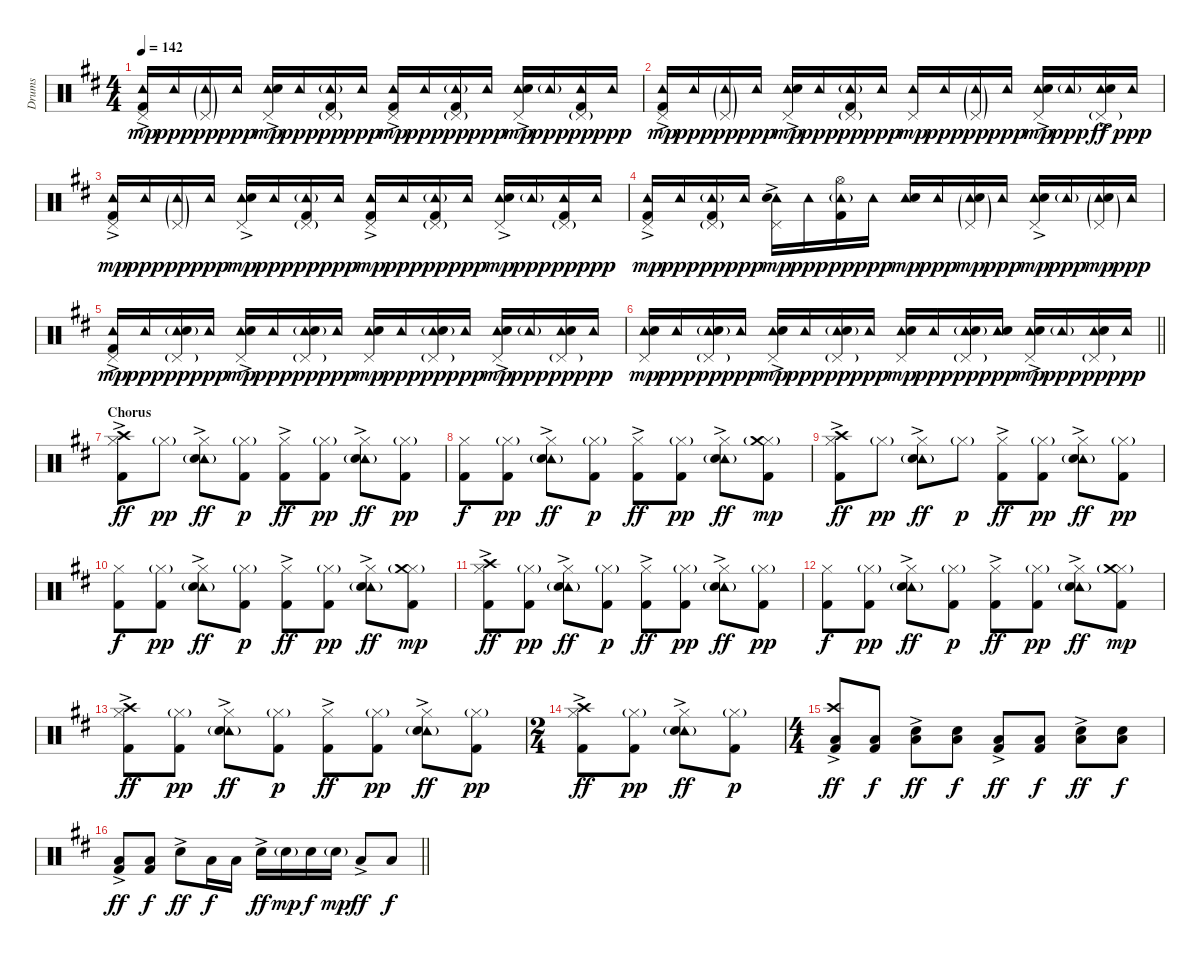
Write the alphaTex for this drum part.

\track ("Drums" "Drums") {instrument percussion}
\staff {score}
\articulation defaults
\ts (4 4)
\tempo 142
\clef neutral
\ks d
("Pedal Hi-Hat (hit)" "Tambourine (hit)" "Kick (hit) 2"{ac}).16{dy mp} "Tambourine (hit)".16{dy ppp} ("Pedal Hi-Hat (hit)"{g} "Tambourine (hit)"{g}).16{dy pp} "Tambourine (hit)".16{dy ppp} ("Pedal Hi-Hat (hit)" "Tambourine (hit)" "Snare (hit) 2"{ac}).16{dy mp} "Tambourine (hit)".16{dy ppp} ("Pedal Hi-Hat (hit)"{g} "Tambourine (hit)"{g} "Kick (hit) 2").16{dy pp} "Tambourine (hit)".16{dy ppp} ("Pedal Hi-Hat (hit)" "Tambourine (hit)" "Kick (hit) 2"{ac}).16{dy mp} "Tambourine (hit)".16{dy ppp} ("Pedal Hi-Hat (hit)"{g} "Tambourine (hit)"{g} "Kick (hit) 2").16{dy pp} "Tambourine (hit)".16{dy ppp} ("Pedal Hi-Hat (hit)" "Tambourine (hit)" "Snare (hit) 2"{ac}).16{dy mp} "Tambourine (hit)"{g}.16{dy ppp} ("Pedal Hi-Hat (hit)"{g} "Tambourine (hit)" "Kick (hit) 2").16{dy pp} "Tambourine (hit)".16{dy ppp} |
("Pedal Hi-Hat (hit)" "Tambourine (hit)" "Kick (hit) 2"{ac}).16{dy mp} "Tambourine (hit)".16{dy ppp} ("Pedal Hi-Hat (hit)"{g} "Tambourine (hit)"{g}).16{dy pp} "Tambourine (hit)".16{dy ppp} ("Pedal Hi-Hat (hit)" "Tambourine (hit)" "Snare (hit) 2"{ac}).16{dy mp} "Tambourine (hit)".16{dy ppp} ("Pedal Hi-Hat (hit)"{g} "Tambourine (hit)"{g} "Kick (hit) 2").16{dy pp} "Tambourine (hit)".16{dy ppp} ("Pedal Hi-Hat (hit)" "Tambourine (hit)").16{dy mp} "Tambourine (hit)".16{dy ppp} ("Pedal Hi-Hat (hit)"{g} "Tambourine (hit)"{g}).16{dy pp} "Tambourine (hit)".16{dy ppp} ("Pedal Hi-Hat (hit)" "Tambourine (hit)" "Snare (hit) 2"{ac}).16{dy mp} "Tambourine (hit)"{g}.16{dy ppp} ("Pedal Hi-Hat (hit)"{g} "Tambourine (hit)" "Snare (hit) 2"{ac}).16{dy ff} "Tambourine (hit)".16{dy ppp} |
("Pedal Hi-Hat (hit)" "Tambourine (hit)" "Kick (hit) 2"{ac}).16{dy mp} "Tambourine (hit)".16{dy ppp} ("Pedal Hi-Hat (hit)"{g} "Tambourine (hit)"{g}).16{dy pp} "Tambourine (hit)".16{dy ppp} ("Pedal Hi-Hat (hit)" "Tambourine (hit)" "Snare (hit) 2"{ac}).16{dy mp} "Tambourine (hit)".16{dy ppp} ("Pedal Hi-Hat (hit)"{g} "Tambourine (hit)"{g} "Kick (hit) 2").16{dy pp} "Tambourine (hit)".16{dy ppp} ("Pedal Hi-Hat (hit)" "Tambourine (hit)" "Kick (hit) 2"{ac}).16{dy mp} "Tambourine (hit)".16{dy ppp} ("Pedal Hi-Hat (hit)"{g} "Tambourine (hit)"{g} "Kick (hit) 2").16{dy pp} "Tambourine (hit)".16{dy ppp} ("Pedal Hi-Hat (hit)" "Tambourine (hit)" "Snare (hit) 2"{ac}).16{dy mp} "Tambourine (hit)"{g}.16{dy ppp} ("Pedal Hi-Hat (hit)"{g} "Tambourine (hit)" "Kick (hit) 2").16{dy pp} "Tambourine (hit)".16{dy ppp} |
("Pedal Hi-Hat (hit)" "Tambourine (hit)" "Kick (hit) 2"{ac}).16{dy mp} "Tambourine (hit)".16{dy ppp} ("Pedal Hi-Hat (hit)"{g} "Tambourine (hit)"{g} "Kick (hit) 2").16{dy pp} "Tambourine (hit)".16{dy ppp} ("Pedal Hi-Hat (hit)" "Tambourine (hit)" "Snare (hit) 2"{ac}).16{dy mp} "Tambourine (hit)".16{dy ppp} ("Hi-Hat (open)" "Tambourine (hit)"{g} "Kick (hit) 2").16{dy pp} "Tambourine (hit)".16{dy ppp} ("Tambourine (hit)" "Snare (hit) 2").16{dy mp} "Tambourine (hit)".16{dy ppp} ("Pedal Hi-Hat (hit)"{g} "Tambourine (hit)"{g} "Snare (hit) 2"{g}).16{dy mp} "Tambourine (hit)".16{dy ppp} ("Pedal Hi-Hat (hit)" "Tambourine (hit)" "Snare (hit) 2"{ac}).16{dy mp} "Tambourine (hit)"{g}.16{dy ppp} ("Pedal Hi-Hat (hit)"{g} "Tambourine (hit)" "Snare (hit) 2"{g}).16{dy mp} "Tambourine (hit)".16{dy ppp} |
("Pedal Hi-Hat (hit)" "Tambourine (hit)" "Kick (hit) 2"{ac}).16{dy mp} "Tambourine (hit)".16{dy ppp} ("Pedal Hi-Hat (hit)"{g} "Tambourine (hit)"{g} "Snare (hit) 2").16{dy pp} "Tambourine (hit)".16{dy ppp} ("Pedal Hi-Hat (hit)" "Tambourine (hit)" "Snare (hit) 2"{ac}).16{dy mp} "Tambourine (hit)".16{dy ppp} ("Pedal Hi-Hat (hit)"{g} "Tambourine (hit)"{g} "Snare (hit) 2").16{dy pp} "Tambourine (hit)".16{dy ppp} ("Pedal Hi-Hat (hit)" "Tambourine (hit)" "Snare (hit) 2").16{dy mp} "Tambourine (hit)".16{dy ppp} ("Pedal Hi-Hat (hit)"{g} "Tambourine (hit)"{g} "Snare (hit) 2").16{dy pp} "Tambourine (hit)".16{dy ppp} ("Pedal Hi-Hat (hit)" "Tambourine (hit)" "Snare (hit) 2"{ac}).16{dy mp} "Tambourine (hit)"{g}.16{dy ppp} ("Pedal Hi-Hat (hit)"{g} "Tambourine (hit)" "Snare (hit) 2").16{dy pp} "Tambourine (hit)".16{dy ppp} |
\barLineRight lightlight
("Pedal Hi-Hat (hit)" "Tambourine (hit)" "Snare (hit) 2").16{dy mp} "Tambourine (hit)".16{dy ppp} ("Pedal Hi-Hat (hit)"{g} "Tambourine (hit)"{g} "Snare (hit) 2").16{dy pp} "Tambourine (hit)".16{dy ppp} ("Pedal Hi-Hat (hit)" "Tambourine (hit)" "Snare (hit) 2"{ac}).16{dy mp} "Tambourine (hit)".16{dy ppp} ("Pedal Hi-Hat (hit)"{g} "Tambourine (hit)"{g} "Snare (hit) 2").16{dy pp} "Tambourine (hit)".16{dy ppp} ("Pedal Hi-Hat (hit)" "Tambourine (hit)" "Snare (hit) 2").16{dy mp} "Tambourine (hit)".16{dy ppp} ("Pedal Hi-Hat (hit)"{g} "Tambourine (hit)"{g} "Snare (hit) 2").16{dy pp} ("Tambourine (hit)" "Snare (hit) 2").16{dy ppp} ("Pedal Hi-Hat (hit)" "Tambourine (hit)" "Snare (hit) 2"{ac}).16{dy mp} "Tambourine (hit)"{g}.16{dy ppp} ("Pedal Hi-Hat (hit)"{g} "Tambourine (hit)" "Snare (hit) 2").16{dy pp} "Tambourine (hit)".16{dy ppp} |
\section ("" "Chorus")
("Hi-Hat (closed)" "Crash high (hit)" "Kick (hit) 2"{ac}).8{dy ff} "Hi-Hat (closed)"{g}.8{dy pp} ("Hi-Hat (closed)" "Tambourine (hit)"{g} "Snare (hit) 2"{ac}).8{dy ff} ("Hi-Hat (closed)"{g} "Kick (hit) 2").8{dy p} ("Hi-Hat (closed)" "Kick (hit) 2"{ac}).8{dy ff} ("Hi-Hat (closed)"{g} "Kick (hit) 2").8{dy pp} ("Hi-Hat (closed)" "Tambourine (hit)"{g} "Snare (hit) 2"{ac}).8{dy ff} ("Hi-Hat (closed)"{g} "Kick (hit) 2").8{dy pp} |
("Hi-Hat (closed)" "Kick (hit) 2").8{dy f} ("Hi-Hat (closed)"{g} "Kick (hit) 2").8{dy pp} ("Hi-Hat (closed)" "Tambourine (hit)"{g} "Snare (hit) 2"{ac}).8{dy ff} ("Hi-Hat (closed)"{g} "Kick (hit) 2").8{dy p} ("Hi-Hat (closed)" "Kick (hit) 2"{ac}).8{dy ff} ("Hi-Hat (closed)"{g} "Kick (hit) 2").8{dy pp} ("Hi-Hat (closed)" "Tambourine (hit)"{g} "Snare (hit) 2"{ac}).8{dy ff} ("Hi-Hat (closed)"{g} "Crash medium (hit)"{g} "Kick (hit) 2").8{dy mp} |
("Hi-Hat (closed)" "Crash high (hit)" "Kick (hit) 2"{ac}).8{dy ff} "Hi-Hat (closed)"{g}.8{dy pp} ("Hi-Hat (closed)" "Tambourine (hit)"{g} "Snare (hit) 2"{ac}).8{dy ff} "Hi-Hat (closed)"{g}.8{dy p} ("Hi-Hat (closed)" "Kick (hit) 2"{ac}).8{dy ff} ("Hi-Hat (closed)"{g} "Kick (hit) 2").8{dy pp} ("Hi-Hat (closed)" "Tambourine (hit)"{g} "Snare (hit) 2"{ac}).8{dy ff} ("Hi-Hat (closed)"{g} "Kick (hit) 2").8{dy pp} |
("Hi-Hat (closed)" "Kick (hit) 2").8{dy f} ("Hi-Hat (closed)"{g} "Kick (hit) 2").8{dy pp} ("Hi-Hat (closed)" "Tambourine (hit)"{g} "Snare (hit) 2"{ac}).8{dy ff} ("Hi-Hat (closed)"{g} "Kick (hit) 2").8{dy p} ("Hi-Hat (closed)" "Kick (hit) 2"{ac}).8{dy ff} ("Hi-Hat (closed)"{g} "Kick (hit) 2").8{dy pp} ("Hi-Hat (closed)" "Tambourine (hit)"{g} "Snare (hit) 2"{ac}).8{dy ff} ("Hi-Hat (closed)"{g} "Crash medium (hit)"{g} "Kick (hit) 2").8{dy mp} |
("Hi-Hat (closed)" "Crash high (hit)" "Kick (hit) 2"{ac}).8{dy ff} ("Hi-Hat (closed)"{g} "Kick (hit) 2").8{dy pp} ("Hi-Hat (closed)" "Tambourine (hit)"{g} "Snare (hit) 2"{ac}).8{dy ff} ("Hi-Hat (closed)"{g} "Kick (hit) 2").8{dy p} ("Hi-Hat (closed)" "Kick (hit) 2"{ac}).8{dy ff} ("Hi-Hat (closed)"{g} "Kick (hit) 2").8{dy pp} ("Hi-Hat (closed)" "Tambourine (hit)"{g} "Snare (hit) 2"{ac}).8{dy ff} ("Hi-Hat (closed)"{g} "Kick (hit) 2").8{dy pp} |
("Hi-Hat (closed)" "Kick (hit) 2").8{dy f} ("Hi-Hat (closed)"{g} "Kick (hit) 2").8{dy pp} ("Hi-Hat (closed)" "Tambourine (hit)"{g} "Snare (hit) 2"{ac}).8{dy ff} ("Hi-Hat (closed)"{g} "Kick (hit) 2").8{dy p} ("Hi-Hat (closed)" "Kick (hit) 2"{ac}).8{dy ff} ("Hi-Hat (closed)"{g} "Kick (hit) 2").8{dy pp} ("Hi-Hat (closed)" "Tambourine (hit)"{g} "Snare (hit) 2"{ac}).8{dy ff} ("Hi-Hat (closed)"{g} "Crash medium (hit)"{g} "Kick (hit) 2").8{dy mp} |
("Hi-Hat (closed)" "Crash high (hit)" "Kick (hit) 2"{ac}).8{dy ff} ("Hi-Hat (closed)"{g} "Kick (hit) 2").8{dy pp} ("Hi-Hat (closed)" "Tambourine (hit)"{g} "Snare (hit) 2"{ac}).8{dy ff} ("Hi-Hat (closed)"{g} "Kick (hit) 2").8{dy p} ("Hi-Hat (closed)" "Kick (hit) 2"{ac}).8{dy ff} ("Hi-Hat (closed)"{g} "Kick (hit) 2").8{dy pp} ("Hi-Hat (closed)" "Tambourine (hit)"{g} "Snare (hit) 2"{ac}).8{dy ff} ("Hi-Hat (closed)"{g} "Kick (hit) 2").8{dy pp} |
\ts (2 4)
("Hi-Hat (closed)" "Crash high (hit)" "Kick (hit) 2"{ac}).8{dy ff} ("Hi-Hat (closed)"{g} "Kick (hit) 2").8{dy pp} ("Hi-Hat (closed)" "Tambourine (hit)"{g} "Snare (hit) 2"{ac}).8{dy ff} ("Hi-Hat (closed)"{g} "Kick (hit) 2").8{dy p} |
\ts (4 4)
("Crash high (hit)" "Low Floor Tom (hit)" "Kick (hit) 2"{ac}).8{dy ff} ("Low Floor Tom (hit)" "Kick (hit) 2").8{dy f} ("Snare (hit) 2"{ac} "Low Tom (hit)").8{dy ff} ("Snare (hit) 2" "Low Tom (hit)").8{dy f} ("Low Floor Tom (hit)" "Kick (hit) 2"{ac}).8{dy ff} ("Low Floor Tom (hit)" "Kick (hit) 2").8{dy f} ("Snare (hit) 2"{ac} "Low Tom (hit)").8{dy ff} ("Snare (hit) 2" "Low Tom (hit)").8{dy f} |
\barLineRight lightlight
("Low Floor Tom (hit)" "Kick (hit) 2"{ac}).8{dy ff} ("Low Floor Tom (hit)" "Kick (hit) 2").8{dy f} "Snare (hit) 2"{ac}.8{dy ff} "Low Floor Tom (hit)".16{dy f} "Low Floor Tom (hit)".16 "Snare (hit) 2"{ac}.16{dy ff} "Snare (hit) 2"{g}.16{dy mp} "Snare (hit) 2".16{dy f} "Snare (hit) 2"{g}.16{dy mp} "Low Tom (hit)"{ac}.8{dy ff} "Low Floor Tom (hit)".8{dy f}
